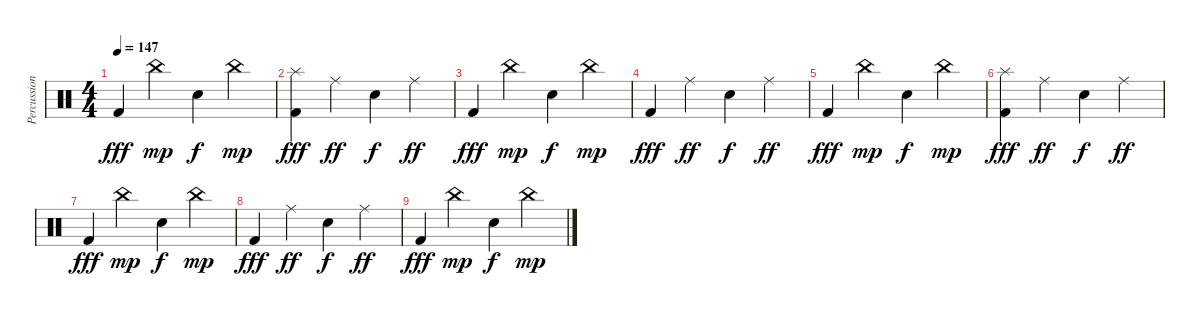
\track ("Percussion" "Percussion") {instrument percussion}
\staff
\articulation defaults
\ts (4 4)
\tempo 147
\clef neutral
\ks c "Kick (hit) 2".4{dy fff} "China (hit)".4{dy mp} "Electric Snare (hit)".4{dy f} "China (hit)".4{dy mp}
|
("Splash (hit)" "Kick (hit) 2").4{dy fff} "Ride (middle)".4{dy ff} "Electric Snare (hit)".4{dy f} "Ride (middle)".4{dy ff} |
"Kick (hit) 2".4{dy fff} "China (hit)".4{dy mp} "Electric Snare (hit)".4{dy f} "China (hit)".4{dy mp} |
"Kick (hit) 2".4{dy fff} "Ride (middle)".4{dy ff} "Electric Snare (hit)".4{dy f} "Ride (middle)".4{dy ff} |
"Kick (hit) 2".4{dy fff} "China (hit)".4{dy mp} "Electric Snare (hit)".4{dy f} "China (hit)".4{dy mp} |
("Splash (hit)" "Kick (hit) 2").4{dy fff} "Ride (middle)".4{dy ff} "Electric Snare (hit)".4{dy f} "Ride (middle)".4{dy ff} |
"Kick (hit) 2".4{dy fff} "China (hit)".4{dy mp} "Electric Snare (hit)".4{dy f} "China (hit)".4{dy mp} |
"Kick (hit) 2".4{dy fff} "Ride (middle)".4{dy ff} "Electric Snare (hit)".4{dy f} "Ride (middle)".4{dy ff} |
"Kick (hit) 2".4{dy fff} "China (hit)".4{dy mp} "Electric Snare (hit)".4{dy f} "China (hit)".4{dy mp}
